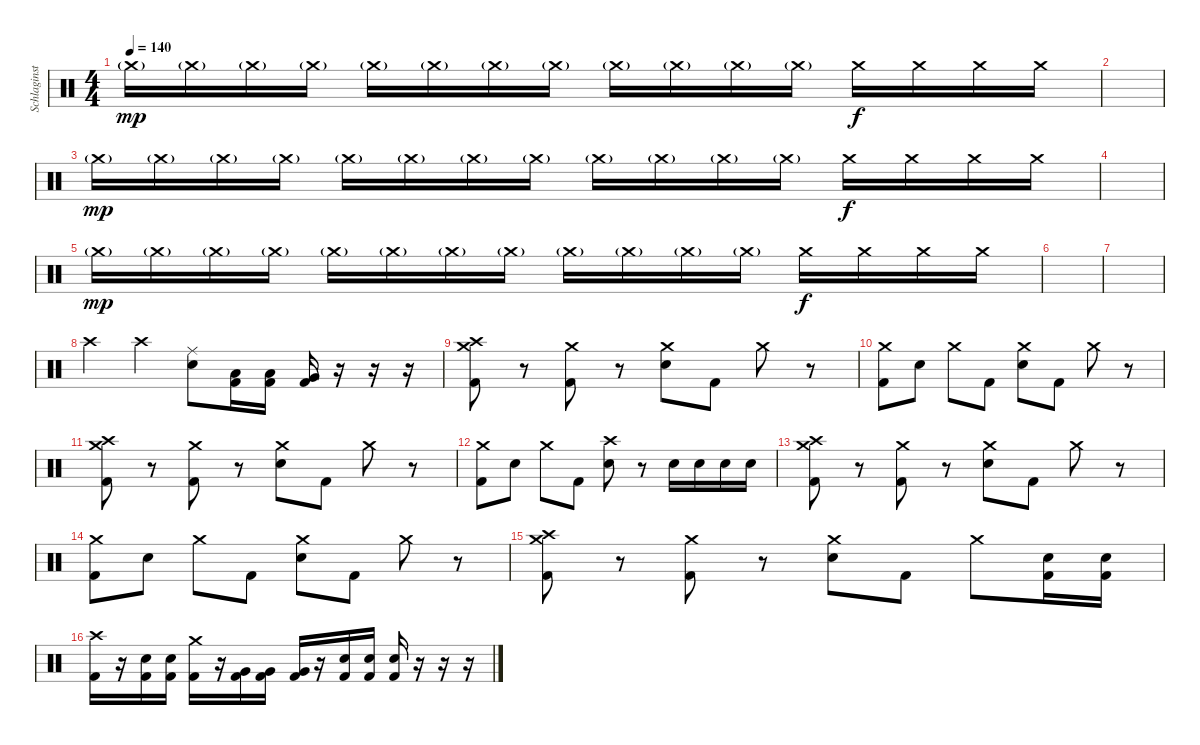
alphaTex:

\track ("Schlaginstrumente - Auswahl" "Schlaginst") {instrument percussion}
\staff {score}
\articulation defaults
\ts (4 4)
\tempo 140
\clef neutral
\ks c "Crash medium (hit)"{g}.16{dy mp} "Crash medium (hit)"{g}.16 "Crash medium (hit)"{g}.16 "Crash medium (hit)"{g}.16 "Crash medium (hit)"{g}.16 "Crash medium (hit)"{g}.16 "Crash medium (hit)"{g}.16 "Crash medium (hit)"{g}.16 "Crash medium (hit)"{g}.16 "Crash medium (hit)"{g}.16 "Crash medium (hit)"{g}.16 "Crash medium (hit)"{g}.16 "Crash medium (hit)".16{dy f} "Crash medium (hit)".16 "Crash medium (hit)".16 "Crash medium (hit)".16
|
|
"Crash medium (hit)"{g}.16{dy mp} "Crash medium (hit)"{g}.16 "Crash medium (hit)"{g}.16 "Crash medium (hit)"{g}.16 "Crash medium (hit)"{g}.16 "Crash medium (hit)"{g}.16 "Crash medium (hit)"{g}.16 "Crash medium (hit)"{g}.16 "Crash medium (hit)"{g}.16 "Crash medium (hit)"{g}.16 "Crash medium (hit)"{g}.16 "Crash medium (hit)"{g}.16 "Crash medium (hit)".16{dy f} "Crash medium (hit)".16 "Crash medium (hit)".16 "Crash medium (hit)".16 |
|
"Crash medium (hit)"{g}.16{dy mp} "Crash medium (hit)"{g}.16 "Crash medium (hit)"{g}.16 "Crash medium (hit)"{g}.16 "Crash medium (hit)"{g}.16 "Crash medium (hit)"{g}.16 "Crash medium (hit)"{g}.16 "Crash medium (hit)"{g}.16 "Crash medium (hit)"{g}.16 "Crash medium (hit)"{g}.16 "Crash medium (hit)"{g}.16 "Crash medium (hit)"{g}.16 "Crash medium (hit)".16{dy f} "Crash medium (hit)".16 "Crash medium (hit)".16 "Crash medium (hit)".16 |
|
|
"Crash high (hit)".4 "Crash high (hit)".4 ("Ride (middle)" "Snare (hit) 2").8 ("Low Floor Tom (hit)" "Kick (hit) 2").16 ("Low Floor Tom (hit)" "Kick (hit) 2").16 ("Very Low Tom (hit)" "Kick (hit) 2").16 r.16 r.16 r.16 |
("Crash medium (hit)" "Crash high (hit)" "Kick (hit) 2").8 r.8 ("Crash medium (hit)" "Kick (hit) 2").8 r.8 ("Crash medium (hit)" "Snare (hit) 2").8 "Kick (hit) 2".8 "Crash medium (hit)".8 r.8 |
("Crash medium (hit)" "Kick (hit) 2").8 "Snare (hit) 2".8 "Crash medium (hit)".8 "Kick (hit) 2".8 ("Crash medium (hit)" "Snare (hit) 2").8 "Kick (hit) 2".8 "Crash medium (hit)".8 r.8 |
("Crash medium (hit)" "Crash high (hit)" "Kick (hit) 2").8 r.8 ("Crash medium (hit)" "Kick (hit) 2").8 r.8 ("Crash medium (hit)" "Snare (hit) 2").8 "Kick (hit) 2".8 "Crash medium (hit)".8 r.8 |
("Crash medium (hit)" "Kick (hit) 2").8 "Snare (hit) 2".8 "Crash medium (hit)".8 "Kick (hit) 2".8 ("Crash high (hit)" "Snare (hit) 2").8 r.8 "Snare (hit) 2".16 "Snare (hit) 2".16 "Snare (hit) 2".16 "Snare (hit) 2".16 |
("Crash medium (hit)" "Crash high (hit)" "Kick (hit) 2").8 r.8 ("Crash medium (hit)" "Kick (hit) 2").8 r.8 ("Crash medium (hit)" "Snare (hit) 2").8 "Kick (hit) 2".8 "Crash medium (hit)".8 r.8 |
("Crash medium (hit)" "Kick (hit) 2").8 "Snare (hit) 2".8 "Crash medium (hit)".8 "Kick (hit) 2".8 ("Crash medium (hit)" "Snare (hit) 2").8 "Kick (hit) 2".8 "Crash medium (hit)".8 r.8 |
("Crash medium (hit)" "Crash high (hit)" "Kick (hit) 2").8 r.8 ("Crash medium (hit)" "Kick (hit) 2").8 r.8 ("Crash medium (hit)" "Snare (hit) 2").8 "Kick (hit) 2".8 "Crash medium (hit)".8 ("Snare (hit) 2" "Kick (hit) 2").16 ("Snare (hit) 2" "Kick (hit) 2").16 |
("Crash high (hit)" "Kick (hit) 2").16 r.16 ("Snare (hit) 2" "Kick (hit) 2").16 ("Snare (hit) 2" "Kick (hit) 2").16 ("Crash medium (hit)" "Kick (hit) 2").16 r.16 ("Very Low Tom (hit)" "Kick (hit) 2").16 ("Very Low Tom (hit)" "Kick (hit) 2").16 ("Very Low Tom (hit)" "Kick (hit) 2").16 r.16 ("Snare (hit) 2" "Kick (hit) 2").16 ("Snare (hit) 2" "Kick (hit) 2").16 ("Snare (hit) 2" "Kick (hit) 2").16 r.16 r.16 r.16
